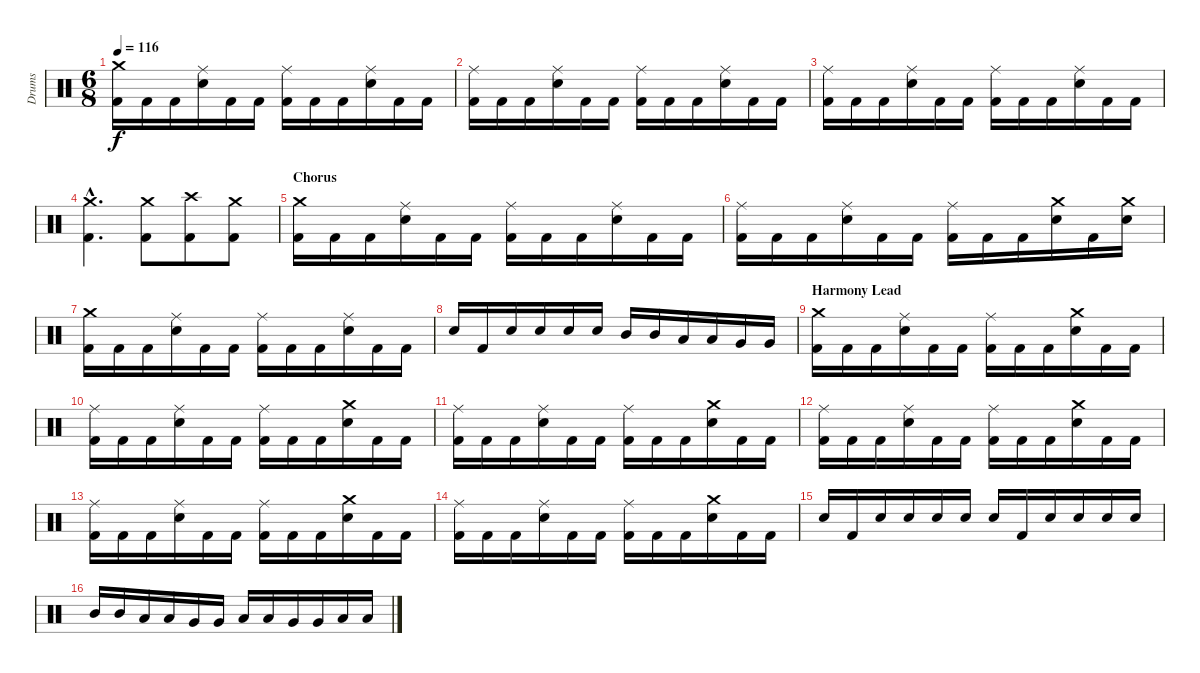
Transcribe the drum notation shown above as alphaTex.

\track ("Drums" "Drums") {instrument percussion}
\staff {score}
\articulation defaults
\ts (6 8)
\tempo 116
\clef neutral
\ks c
("Crash medium (hit)" "Kick (hit) 2").16{dy f} "Kick (hit) 2".16 "Kick (hit) 2".16 ("Ride (middle)" "Electric Snare (hit)").16 "Kick (hit) 2".16 "Kick (hit) 2".16 ("Ride (middle)" "Kick (hit) 2").16 "Kick (hit) 2".16 "Kick (hit) 2".16 ("Ride (middle)" "Electric Snare (hit)").16 "Kick (hit) 2".16 "Kick (hit) 2".16 |
("Ride (middle)" "Kick (hit) 2").16 "Kick (hit) 2".16 "Kick (hit) 2".16 ("Ride (middle)" "Electric Snare (hit)").16 "Kick (hit) 2".16 "Kick (hit) 2".16 ("Ride (middle)" "Kick (hit) 2").16 "Kick (hit) 2".16 "Kick (hit) 2".16 ("Ride (middle)" "Electric Snare (hit)").16 "Kick (hit) 2".16 "Kick (hit) 2".16 |
("Ride (middle)" "Kick (hit) 2").16 "Kick (hit) 2".16 "Kick (hit) 2".16 ("Ride (middle)" "Electric Snare (hit)").16 "Kick (hit) 2".16 "Kick (hit) 2".16 ("Ride (middle)" "Kick (hit) 2").16 "Kick (hit) 2".16 "Kick (hit) 2".16 ("Ride (middle)" "Electric Snare (hit)").16 "Kick (hit) 2".16 "Kick (hit) 2".16 |
("Crash medium (hit)"{hac} "Kick (hit) 2"{hac}).4{d} ("Crash medium (hit)" "Kick (hit) 2").8 ("Crash high (hit)" "Kick (hit) 2").8 ("Crash medium (hit)" "Kick (hit) 2").8 |
\section ("" "Chorus")
("Crash medium (hit)" "Kick (hit) 2").16 "Kick (hit) 2".16 "Kick (hit) 2".16 ("Ride (middle)" "Electric Snare (hit)").16 "Kick (hit) 2".16 "Kick (hit) 2".16 ("Ride (middle)" "Kick (hit) 2").16 "Kick (hit) 2".16 "Kick (hit) 2".16 ("Ride (middle)" "Electric Snare (hit)").16 "Kick (hit) 2".16 "Kick (hit) 2".16 |
("Ride (middle)" "Kick (hit) 2").16 "Kick (hit) 2".16 "Kick (hit) 2".16 ("Ride (middle)" "Electric Snare (hit)").16 "Kick (hit) 2".16 "Kick (hit) 2".16 ("Ride (middle)" "Kick (hit) 2").16 "Kick (hit) 2".16 "Kick (hit) 2".16 ("Crash medium (hit)" "Electric Snare (hit)").16 "Kick (hit) 2".16 ("Crash medium (hit)" "Electric Snare (hit)").16 |
("Crash medium (hit)" "Kick (hit) 2").16 "Kick (hit) 2".16 "Kick (hit) 2".16 ("Ride (middle)" "Electric Snare (hit)").16 "Kick (hit) 2".16 "Kick (hit) 2".16 ("Ride (middle)" "Kick (hit) 2").16 "Kick (hit) 2".16 "Kick (hit) 2".16 ("Ride (middle)" "Electric Snare (hit)").16 "Kick (hit) 2".16 "Kick (hit) 2".16 |
"Electric Snare (hit)".16 "Kick (hit) 2".16 "Electric Snare (hit)".16 "Electric Snare (hit)".16 "Electric Snare (hit)".16 "Electric Snare (hit)".16 "Mid Tom (hit)".16 "Mid Tom (hit)".16 "Low Tom (hit)".16 "Low Tom (hit)".16 "Very Low Tom (hit)".16 "Very Low Tom (hit)".16 |
\section ("" "Harmony Lead")
("Crash medium (hit)" "Kick (hit) 2").16 "Kick (hit) 2".16 "Kick (hit) 2".16 ("Ride (middle)" "Electric Snare (hit)").16 "Kick (hit) 2".16 "Kick (hit) 2".16 ("Ride (middle)" "Kick (hit) 2").16 "Kick (hit) 2".16 "Kick (hit) 2".16 ("Crash medium (hit)" "Electric Snare (hit)").16 "Kick (hit) 2".16 "Kick (hit) 2".16 |
("Ride (middle)" "Kick (hit) 2").16 "Kick (hit) 2".16 "Kick (hit) 2".16 ("Ride (middle)" "Electric Snare (hit)").16 "Kick (hit) 2".16 "Kick (hit) 2".16 ("Ride (middle)" "Kick (hit) 2").16 "Kick (hit) 2".16 "Kick (hit) 2".16 ("Crash medium (hit)" "Electric Snare (hit)").16 "Kick (hit) 2".16 "Kick (hit) 2".16 |
("Ride (middle)" "Kick (hit) 2").16 "Kick (hit) 2".16 "Kick (hit) 2".16 ("Ride (middle)" "Electric Snare (hit)").16 "Kick (hit) 2".16 "Kick (hit) 2".16 ("Ride (middle)" "Kick (hit) 2").16 "Kick (hit) 2".16 "Kick (hit) 2".16 ("Crash medium (hit)" "Electric Snare (hit)").16 "Kick (hit) 2".16 "Kick (hit) 2".16 |
("Ride (middle)" "Kick (hit) 2").16 "Kick (hit) 2".16 "Kick (hit) 2".16 ("Ride (middle)" "Electric Snare (hit)").16 "Kick (hit) 2".16 "Kick (hit) 2".16 ("Ride (middle)" "Kick (hit) 2").16 "Kick (hit) 2".16 "Kick (hit) 2".16 ("Crash medium (hit)" "Electric Snare (hit)").16 "Kick (hit) 2".16 "Kick (hit) 2".16 |
("Ride (middle)" "Kick (hit) 2").16 "Kick (hit) 2".16 "Kick (hit) 2".16 ("Ride (middle)" "Electric Snare (hit)").16 "Kick (hit) 2".16 "Kick (hit) 2".16 ("Ride (middle)" "Kick (hit) 2").16 "Kick (hit) 2".16 "Kick (hit) 2".16 ("Crash medium (hit)" "Electric Snare (hit)").16 "Kick (hit) 2".16 "Kick (hit) 2".16 |
("Ride (middle)" "Kick (hit) 2").16 "Kick (hit) 2".16 "Kick (hit) 2".16 ("Ride (middle)" "Electric Snare (hit)").16 "Kick (hit) 2".16 "Kick (hit) 2".16 ("Ride (middle)" "Kick (hit) 2").16 "Kick (hit) 2".16 "Kick (hit) 2".16 ("Crash medium (hit)" "Electric Snare (hit)").16 "Kick (hit) 2".16 "Kick (hit) 2".16 |
"Electric Snare (hit)".16 "Kick (hit) 2".16 "Electric Snare (hit)".16 "Electric Snare (hit)".16 "Electric Snare (hit)".16 "Electric Snare (hit)".16 "Electric Snare (hit)".16 "Kick (hit) 2".16 "Electric Snare (hit)".16 "Electric Snare (hit)".16 "Electric Snare (hit)".16 "Electric Snare (hit)".16 |
"Mid Tom (hit)".16 "Mid Tom (hit)".16 "Low Tom (hit)".16 "Low Tom (hit)".16 "Very Low Tom (hit)".16 "Very Low Tom (hit)".16 "Low Tom (hit)".16 "Low Tom (hit)".16 "Very Low Tom (hit)".16 "Very Low Tom (hit)".16 "Low Floor Tom (hit)".16 "Low Floor Tom (hit)".16
